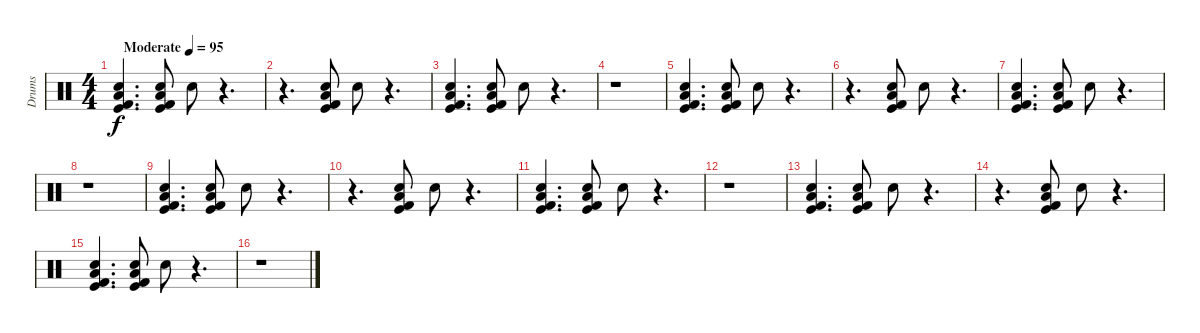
\track ("Drums" "Drums") {instrument percussion}
\staff {score}
\articulation defaults
\ts (4 4)
\tempo (95 "Moderate")
\clef neutral
\ks c
("Kick (hit) 2" "Low Floor Tom (hit)" "Kick (hit)" "Snare (hit) 2").4{d dy f} ("Kick (hit) 2" "Low Floor Tom (hit)" "Kick (hit)" "Snare (hit) 2").8 "Snare (hit) 2".8 r.4{d} |
r.4{d} ("Kick (hit) 2" "Low Floor Tom (hit)" "Kick (hit)" "Snare (hit) 2").8 "Snare (hit) 2".8 r.4{d} |
("Kick (hit) 2" "Low Floor Tom (hit)" "Kick (hit)" "Snare (hit) 2").4{d} ("Kick (hit) 2" "Low Floor Tom (hit)" "Kick (hit)" "Snare (hit) 2").8 "Snare (hit) 2".8 r.4{d} |
r.1 |
("Kick (hit) 2" "Low Floor Tom (hit)" "Kick (hit)" "Snare (hit) 2").4{d} ("Kick (hit) 2" "Low Floor Tom (hit)" "Kick (hit)" "Snare (hit) 2").8 "Snare (hit) 2".8 r.4{d} |
r.4{d} ("Kick (hit) 2" "Low Floor Tom (hit)" "Kick (hit)" "Snare (hit) 2").8 "Snare (hit) 2".8 r.4{d} |
("Kick (hit) 2" "Low Floor Tom (hit)" "Kick (hit)" "Snare (hit) 2").4{d} ("Kick (hit) 2" "Low Floor Tom (hit)" "Kick (hit)" "Snare (hit) 2").8 "Snare (hit) 2".8 r.4{d} |
r.1 |
("Kick (hit) 2" "Low Floor Tom (hit)" "Kick (hit)" "Snare (hit) 2").4{d} ("Kick (hit) 2" "Low Floor Tom (hit)" "Kick (hit)" "Snare (hit) 2").8 "Snare (hit) 2".8 r.4{d} |
r.4{d} ("Kick (hit) 2" "Low Floor Tom (hit)" "Kick (hit)" "Snare (hit) 2").8 "Snare (hit) 2".8 r.4{d} |
("Kick (hit) 2" "Low Floor Tom (hit)" "Kick (hit)" "Snare (hit) 2").4{d} ("Kick (hit) 2" "Low Floor Tom (hit)" "Kick (hit)" "Snare (hit) 2").8 "Snare (hit) 2".8 r.4{d} |
r.1 |
("Kick (hit) 2" "Low Floor Tom (hit)" "Kick (hit)" "Snare (hit) 2").4{d} ("Kick (hit) 2" "Low Floor Tom (hit)" "Kick (hit)" "Snare (hit) 2").8 "Snare (hit) 2".8 r.4{d} |
r.4{d} ("Kick (hit) 2" "Low Floor Tom (hit)" "Kick (hit)" "Snare (hit) 2").8 "Snare (hit) 2".8 r.4{d} |
("Kick (hit) 2" "Low Floor Tom (hit)" "Kick (hit)" "Snare (hit) 2").4{d} ("Kick (hit) 2" "Low Floor Tom (hit)" "Kick (hit)" "Snare (hit) 2").8 "Snare (hit) 2".8 r.4{d} |
r.1
